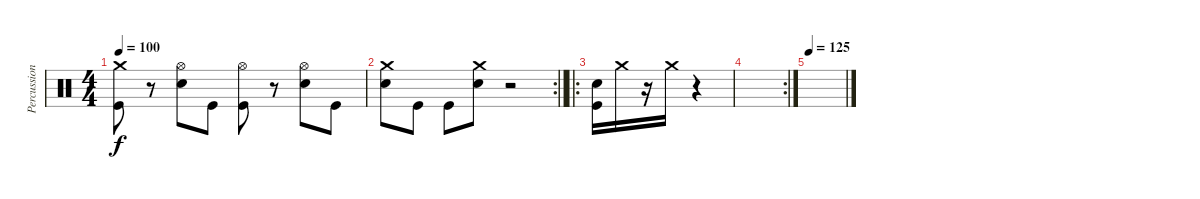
\track ("Percussion" "Percussion") {instrument percussion}
\staff {score}
\articulation defaults
\ts (4 4)
\tempo 100
\clef neutral
\ks c
("Crash medium (hit)" "Kick (hit)").8{dy f} r.8 ("Hi-Hat (open)" "Snare (hit) 2").8 "Kick (hit)".8 ("Hi-Hat (open)" "Kick (hit)").8 r.8 ("Hi-Hat (open)" "Snare (hit) 2").8 "Kick (hit)".8 |
\rc 2
\barLineRight lightlight
("Crash medium (hit)" "Snare (hit) 2").8 "Kick (hit)".8 "Kick (hit)".8 ("Crash medium (hit)" "Snare (hit) 2").8 r.2 |
\ro
("Snare (hit) 2" "Kick (hit)").16 "Crash medium (hit)".16 r.16 "Crash medium (hit)".16 r.4 |
\rc 2
|
\tempo 125
